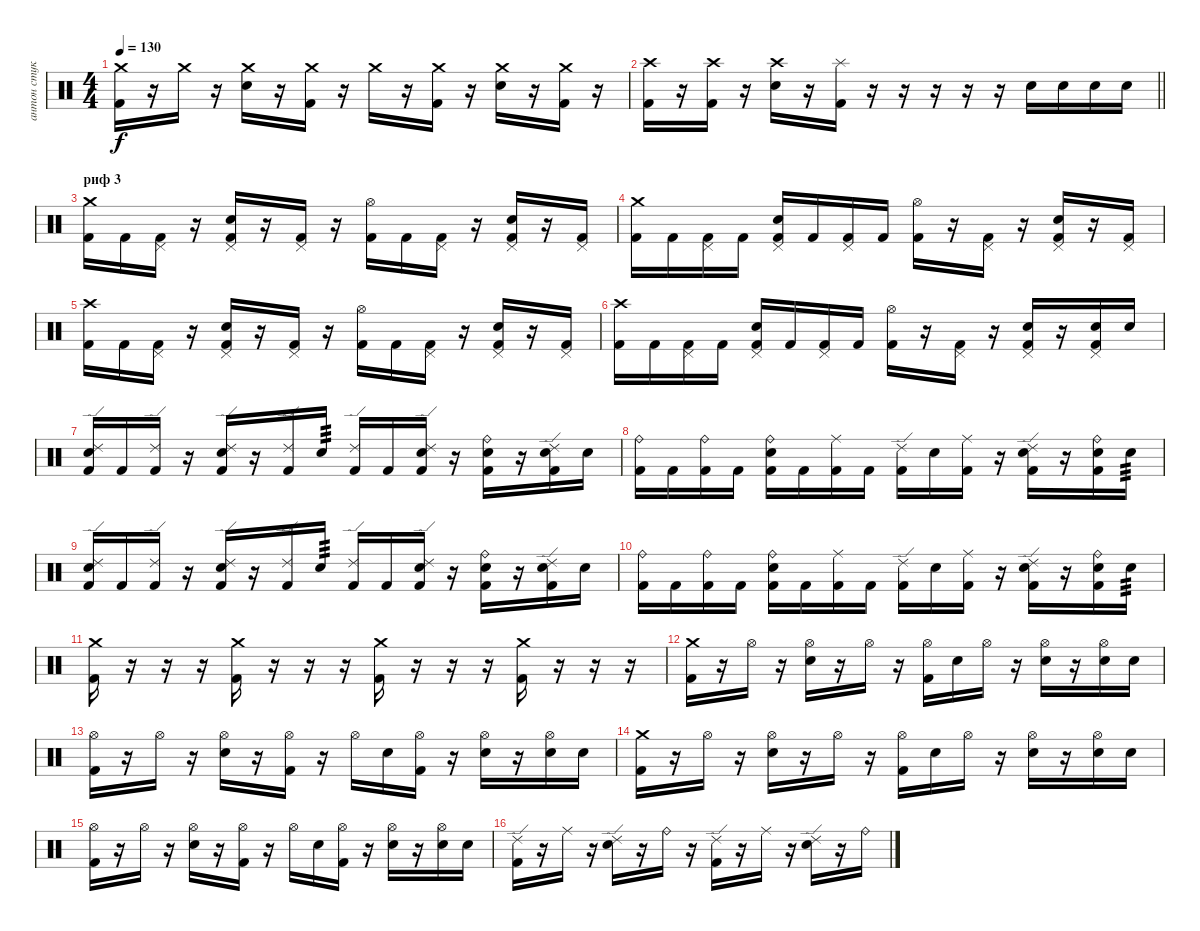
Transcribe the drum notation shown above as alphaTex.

\track ("антон стукачь" "антон стук") {instrument percussion}
\staff {score}
\articulation defaults
\ts (4 4)
\tempo 130
\clef neutral
\ks c
("Crash medium (hit)" "Kick (hit) 2").16{dy f} r.16 "Crash medium (hit)".16 r.16 ("Crash medium (hit)" "Electric Snare (hit)").16 r.16 ("Crash medium (hit)" "Kick (hit) 2").16 r.16 "Crash medium (hit)".16 r.16 ("Crash medium (hit)" "Kick (hit) 2").16 r.16 ("Crash medium (hit)" "Electric Snare (hit)").16 r.16 ("Crash medium (hit)" "Kick (hit) 2").16 r.16 |
\barLineRight lightlight
("Crash high (hit)" "Kick (hit) 2").16 r.16 ("Crash high (hit)" "Kick (hit) 2").16 r.16 ("Crash high (hit)" "Electric Snare (hit)").16 r.16 ("Splash (hit)" "Kick (hit) 2").16 r.16 r.16 r.16 r.16 r.16 "Electric Snare (hit)".16 "Electric Snare (hit)".16 "Electric Snare (hit)".16 "Electric Snare (hit)".16 |
\section ("" "риф 3")
("Crash medium (hit)" "Kick (hit) 2").16 "Kick (hit) 2".16 ("Pedal Hi-Hat (hit)" "Kick (hit) 2").16 r.16 ("Pedal Hi-Hat (hit)" "Electric Snare (hit)" "Kick (hit) 2").16 r.16 ("Pedal Hi-Hat (hit)" "Kick (hit) 2").16 r.16 ("Hi-Hat (open)" "Kick (hit) 2").16 "Kick (hit) 2".16 ("Pedal Hi-Hat (hit)" "Kick (hit) 2").16 r.16 ("Pedal Hi-Hat (hit)" "Electric Snare (hit)" "Kick (hit) 2").16 r.16 ("Pedal Hi-Hat (hit)" "Kick (hit) 2").16 |
("Crash medium (hit)" "Kick (hit) 2").16 "Kick (hit) 2".16 ("Pedal Hi-Hat (hit)" "Kick (hit) 2").16 "Kick (hit) 2".16 ("Pedal Hi-Hat (hit)" "Electric Snare (hit)" "Kick (hit) 2").16 "Kick (hit) 2".16 ("Pedal Hi-Hat (hit)" "Kick (hit) 2").16 "Kick (hit) 2".16 ("Hi-Hat (open)" "Kick (hit) 2").16 r.16 ("Pedal Hi-Hat (hit)" "Kick (hit) 2").16 r.16 ("Pedal Hi-Hat (hit)" "Electric Snare (hit)" "Kick (hit) 2").16 r.16 ("Pedal Hi-Hat (hit)" "Kick (hit) 2").16 |
("Crash high (hit)" "Kick (hit) 2").16 "Kick (hit) 2".16 ("Pedal Hi-Hat (hit)" "Kick (hit) 2").16 r.16 ("Pedal Hi-Hat (hit)" "Electric Snare (hit)" "Kick (hit) 2").16 r.16 ("Pedal Hi-Hat (hit)" "Kick (hit) 2").16 r.16 ("Hi-Hat (open)" "Kick (hit) 2").16 "Kick (hit) 2".16 ("Pedal Hi-Hat (hit)" "Kick (hit) 2").16 r.16 ("Pedal Hi-Hat (hit)" "Electric Snare (hit)" "Kick (hit) 2").16 r.16 ("Pedal Hi-Hat (hit)" "Kick (hit) 2").16 |
("Crash high (hit)" "Kick (hit) 2").16 "Kick (hit) 2".16 ("Pedal Hi-Hat (hit)" "Kick (hit) 2").16 "Kick (hit) 2".16 ("Pedal Hi-Hat (hit)" "Electric Snare (hit)" "Kick (hit) 2").16 "Kick (hit) 2".16 ("Pedal Hi-Hat (hit)" "Kick (hit) 2").16 "Kick (hit) 2".16 ("Hi-Hat (open)" "Kick (hit) 2").16 r.16 ("Pedal Hi-Hat (hit)" "Kick (hit) 2").16 r.16 ("Pedal Hi-Hat (hit)" "Electric Snare (hit)" "Kick (hit) 2").16 r.16 ("Pedal Hi-Hat (hit)" "Electric Snare (hit)" "Kick (hit) 2").16 "Electric Snare (hit)".16 |
("Ride (edge) 2" "Electric Snare (hit)" "Kick (hit) 2").16 "Kick (hit) 2".16 ("Ride (edge) 2" "Kick (hit) 2").16 r.16 ("Ride (edge) 2" "Electric Snare (hit)" "Kick (hit) 2").16 r.16 ("Ride (edge) 2" "Kick (hit) 2").16 "Electric Snare (hit)".16{tp 3} ("Ride (edge) 2" "Kick (hit) 2").16 "Kick (hit) 2".16 ("Ride (edge) 2" "Electric Snare (hit)" "Kick (hit) 2").16 r.16 ("Ride (bell)" "Electric Snare (hit)" "Kick (hit) 2").16 r.16 ("Ride (edge) 2" "Electric Snare (hit)" "Kick (hit) 2").16 "Electric Snare (hit)".16 |
("Ride (bell)" "Kick (hit) 2").16 "Kick (hit) 2".16 ("Ride (bell)" "Kick (hit) 2").16 "Kick (hit) 2".16 ("Ride (bell)" "Electric Snare (hit)" "Kick (hit) 2").16 "Kick (hit) 2".16 ("Ride (middle)" "Kick (hit) 2").16 "Kick (hit) 2".16 ("Ride (edge) 2" "Kick (hit) 2").16 "Electric Snare (hit)".16 ("Ride (middle)" "Kick (hit) 2").16 r.16 ("Ride (edge) 2" "Electric Snare (hit)" "Kick (hit) 2").16 r.16 ("Ride (bell)" "Electric Snare (hit)" "Kick (hit) 2").16 "Electric Snare (hit)".16{tp 3} |
("Ride (edge) 2" "Electric Snare (hit)" "Kick (hit) 2").16 "Kick (hit) 2".16 ("Ride (edge) 2" "Kick (hit) 2").16 r.16 ("Ride (edge) 2" "Electric Snare (hit)" "Kick (hit) 2").16 r.16 ("Ride (edge) 2" "Kick (hit) 2").16 "Electric Snare (hit)".16{tp 3} ("Ride (edge) 2" "Kick (hit) 2").16 "Kick (hit) 2".16 ("Ride (edge) 2" "Electric Snare (hit)" "Kick (hit) 2").16 r.16 ("Ride (bell)" "Electric Snare (hit)" "Kick (hit) 2").16 r.16 ("Ride (edge) 2" "Electric Snare (hit)" "Kick (hit) 2").16 "Electric Snare (hit)".16 |
("Ride (bell)" "Kick (hit) 2").16 "Kick (hit) 2".16 ("Ride (bell)" "Kick (hit) 2").16 "Kick (hit) 2".16 ("Ride (bell)" "Electric Snare (hit)" "Kick (hit) 2").16 "Kick (hit) 2".16 ("Ride (middle)" "Kick (hit) 2").16 "Kick (hit) 2".16 ("Ride (edge) 2" "Kick (hit) 2").16 "Electric Snare (hit)".16 ("Ride (middle)" "Kick (hit) 2").16 r.16 ("Ride (edge) 2" "Electric Snare (hit)" "Kick (hit) 2").16 r.16 ("Ride (bell)" "Electric Snare (hit)" "Kick (hit) 2").16 "Electric Snare (hit)".16{tp 3} |
("Crash medium (hit)" "Kick (hit) 2").16 r.16 r.16 r.16 ("Crash medium (hit)" "Kick (hit) 2").16 r.16 r.16 r.16 ("Crash medium (hit)" "Kick (hit) 2").16 r.16 r.16 r.16 ("Crash medium (hit)" "Kick (hit) 2").16 r.16 r.16 r.16 |
("Crash medium (hit)" "Kick (hit) 2").16 r.16 "Hi-Hat (open)".16 r.16 ("Hi-Hat (open)" "Electric Snare (hit)").16 r.16 "Hi-Hat (open)".16 r.16 ("Hi-Hat (open)" "Kick (hit) 2").16 "Electric Snare (hit)".16 "Hi-Hat (open)".16 r.16 ("Hi-Hat (open)" "Electric Snare (hit)").16 r.16 ("Hi-Hat (open)" "Electric Snare (hit)").16 "Electric Snare (hit)".16 |
("Hi-Hat (open)" "Kick (hit) 2").16 r.16 "Hi-Hat (open)".16 r.16 ("Hi-Hat (open)" "Electric Snare (hit)").16 r.16 ("Hi-Hat (open)" "Kick (hit) 2").16 r.16 "Hi-Hat (open)".16 "Electric Snare (hit)".16 ("Hi-Hat (open)" "Kick (hit) 2").16 r.16 ("Hi-Hat (open)" "Electric Snare (hit)").16 r.16 ("Hi-Hat (open)" "Electric Snare (hit)").16 "Electric Snare (hit)".16 |
("Crash medium (hit)" "Kick (hit) 2").16 r.16 "Hi-Hat (open)".16 r.16 ("Hi-Hat (open)" "Electric Snare (hit)").16 r.16 "Hi-Hat (open)".16 r.16 ("Hi-Hat (open)" "Kick (hit) 2").16 "Electric Snare (hit)".16 "Hi-Hat (open)".16 r.16 ("Hi-Hat (open)" "Electric Snare (hit)").16 r.16 ("Hi-Hat (open)" "Electric Snare (hit)").16 "Electric Snare (hit)".16 |
("Hi-Hat (open)" "Kick (hit) 2").16 r.16 "Hi-Hat (open)".16 r.16 ("Hi-Hat (open)" "Electric Snare (hit)").16 r.16 ("Hi-Hat (open)" "Kick (hit) 2").16 r.16 "Hi-Hat (open)".16 "Electric Snare (hit)".16 ("Hi-Hat (open)" "Kick (hit) 2").16 r.16 ("Hi-Hat (open)" "Electric Snare (hit)").16 r.16 ("Hi-Hat (open)" "Electric Snare (hit)").16 "Electric Snare (hit)".16 |
("Ride (edge) 2" "Kick (hit) 2").16 r.16 "Ride (middle)".16 r.16 ("Ride (edge) 2" "Electric Snare (hit)").16 r.16 "Ride (bell)".16 r.16 ("Ride (edge) 2" "Kick (hit) 2").16 r.16 "Ride (middle)".16 r.16 ("Ride (edge) 2" "Electric Snare (hit)").16 r.16 "Ride (bell)".16
